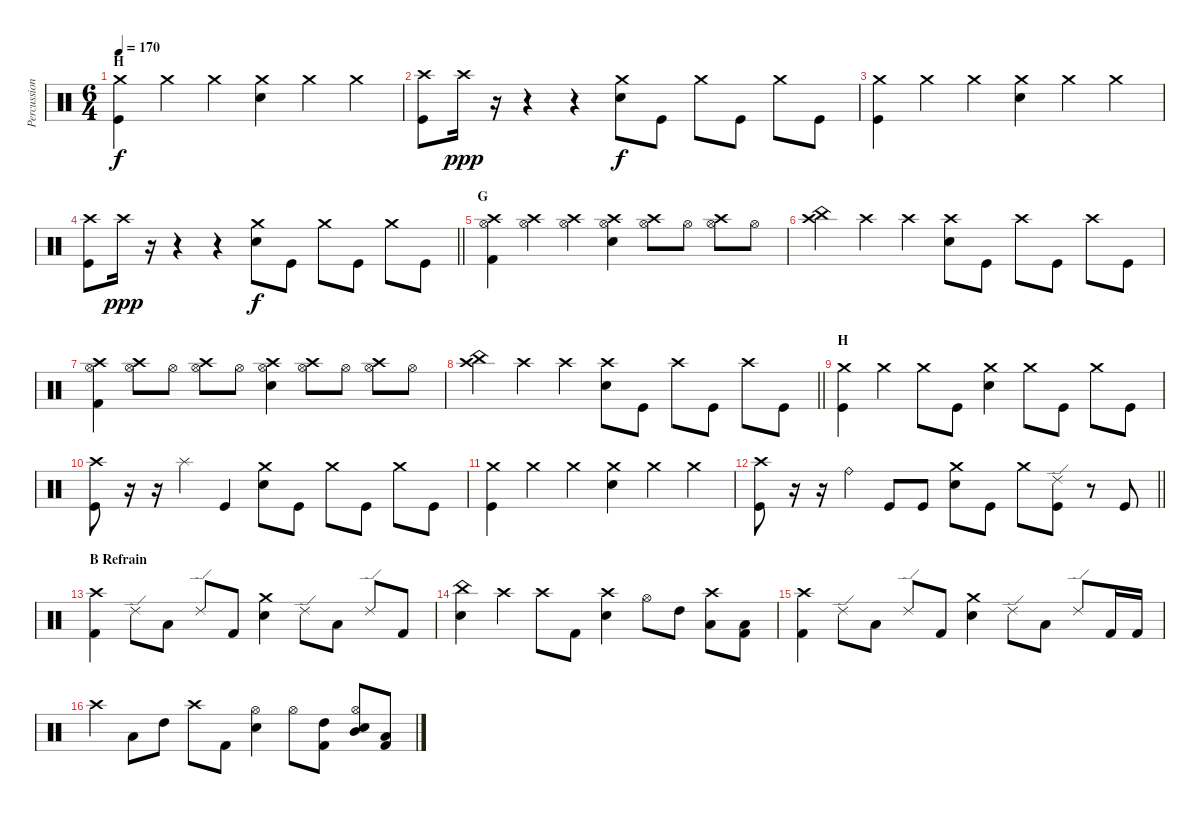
\track ("Percussions" "Percussion") {instrument percussion}
\staff {score}
\articulation defaults
\ts (6 4)
\section ("" "H")
\tempo 170
\clef neutral
\ks c
("Crash medium (hit)" "Kick (hit)").4{dy f} "Crash medium (hit)".4 "Crash medium (hit)".4 ("Crash medium (hit)" "Snare (hit) 2").4 "Crash medium (hit)".4 "Crash medium (hit)".4 |
("Crash high (hit)" "Kick (hit)").8 "Crash high (hit)".16{dy ppp} r.16 r.4 r.4 ("Crash medium (hit)" "Snare (hit) 2").8{dy f} "Kick (hit)".8 "Crash medium (hit)".8 "Kick (hit)".8 "Crash medium (hit)".8 "Kick (hit)".8 |
("Crash medium (hit)" "Kick (hit)").4 "Crash medium (hit)".4 "Crash medium (hit)".4 ("Crash medium (hit)" "Snare (hit) 2").4 "Crash medium (hit)".4 "Crash medium (hit)".4 |
\barLineRight lightlight
("Crash high (hit)" "Kick (hit)").8 "Crash high (hit)".16{dy ppp} r.16 r.4 r.4 ("Crash medium (hit)" "Snare (hit) 2").8{dy f} "Kick (hit)".8 "Crash medium (hit)".8 "Kick (hit)".8 "Crash medium (hit)".8 "Kick (hit)".8 |
\section ("" "G")
("Crash high (hit)" "Hi-Hat (open)" "Kick (hit) 2").4 ("Crash high (hit)" "Hi-Hat (open)").4 ("Crash high (hit)" "Hi-Hat (open)").4 ("Crash high (hit)" "Hi-Hat (open)" "Snare (hit) 2").4 ("Crash high (hit)" "Hi-Hat (open)").8 "Hi-Hat (open)".8 ("Crash high (hit)" "Hi-Hat (open)").8 "Hi-Hat (open)".8 |
("China (hit)" "Crash high (hit)").4 "Crash high (hit)".4 "Crash high (hit)".4 ("Crash high (hit)" "Snare (hit) 2").8 "Kick (hit)".8 "Crash high (hit)".8 "Kick (hit)".8 "Crash high (hit)".8 "Kick (hit)".8 |
("Crash high (hit)" "Hi-Hat (open)" "Kick (hit) 2").4 ("Crash high (hit)" "Hi-Hat (open)").8 "Hi-Hat (open)".8 ("Crash high (hit)" "Hi-Hat (open)").8 "Hi-Hat (open)".8 ("Crash high (hit)" "Hi-Hat (open)" "Snare (hit) 2").4 ("Crash high (hit)" "Hi-Hat (open)").8 "Hi-Hat (open)".8 ("Crash high (hit)" "Hi-Hat (open)").8 "Hi-Hat (open)".8 |
\barLineRight lightlight
("China (hit)" "Crash high (hit)").4 "Crash high (hit)".4 "Crash high (hit)".4 ("Crash high (hit)" "Snare (hit) 2").8 "Kick (hit)".8 "Crash high (hit)".8 "Kick (hit)".8 "Crash high (hit)".8 "Kick (hit)".8 |
\section ("" "H")
("Crash medium (hit)" "Kick (hit)").4 "Crash medium (hit)".4 "Crash medium (hit)".8 "Kick (hit)".8 ("Crash medium (hit)" "Snare (hit) 2").4 "Crash medium (hit)".8 "Kick (hit)".8 "Crash medium (hit)".8 "Kick (hit)".8 |
("Crash high (hit)" "Kick (hit)").8 r.16 r.16 "Splash (hit)".4 "Kick (hit)".4 ("Crash medium (hit)" "Snare (hit) 2").8 "Kick (hit)".8 "Crash medium (hit)".8 "Kick (hit)".8 "Crash medium (hit)".8 "Kick (hit)".8 |
("Crash medium (hit)" "Kick (hit)").4 "Crash medium (hit)".4 "Crash medium (hit)".4 ("Crash medium (hit)" "Snare (hit) 2").4 "Crash medium (hit)".4 "Crash medium (hit)".4 |
\barLineRight lightlight
("Crash high (hit)" "Kick (hit)").8 r.16 r.16 "Ride (bell)".4 "Kick (hit)".8 "Kick (hit)".8 ("Crash medium (hit)" "Snare (hit) 2").8 "Kick (hit)".8 "Crash medium (hit)".8 ("Ride (edge) 2" "Kick (hit)").8 r.8 "Kick (hit)".8 |
\section ("" "B Refrain")
("Crash high (hit)" "Kick (hit) 2").4 "Ride (edge) 2".8 "Low Tom (hit)".8 "Ride (edge) 2".8 "Kick (hit) 2".8 ("Crash medium (hit)" "Snare (hit) 2").4 "Ride (edge) 2".8 "Low Floor Tom (hit)".8 "Ride (edge) 2".8 "Kick (hit) 2".8 |
("China (hit)" "Snare (hit) 2").4 "Crash high (hit)".4 "Crash high (hit)".8 "Kick (hit) 2".8 ("Crash high (hit)" "Snare (hit) 2").4 "Hi-Hat (open)".8 "High Tom (hit)".8 ("Crash high (hit)" "Low Tom (hit)").8 ("Low Floor Tom (hit)" "Kick (hit) 2").8 |
("Crash high (hit)" "Kick (hit) 2").4 "Ride (edge) 2".8 "Low Tom (hit)".8 "Ride (edge) 2".8 "Kick (hit) 2".8 ("Crash medium (hit)" "Snare (hit) 2").4 "Ride (edge) 2".8 "Low Floor Tom (hit)".8 "Ride (edge) 2".8 "Kick (hit) 2".16 "Kick (hit) 2".16 |
"Crash high (hit)".4 "Low Tom (hit)".8 "High Tom (hit)".8 "Crash high (hit)".8 "Kick (hit) 2".8 ("Hi-Hat (open)" "Snare (hit) 2").4 "Hi-Hat (open)".8 ("High Tom (hit)" "Kick (hit) 2").8 ("Hi-Hat (open)" "Mid Tom (hit)" "Snare (hit) 2").8 ("Low Tom (hit)" "Kick (hit) 2").8
